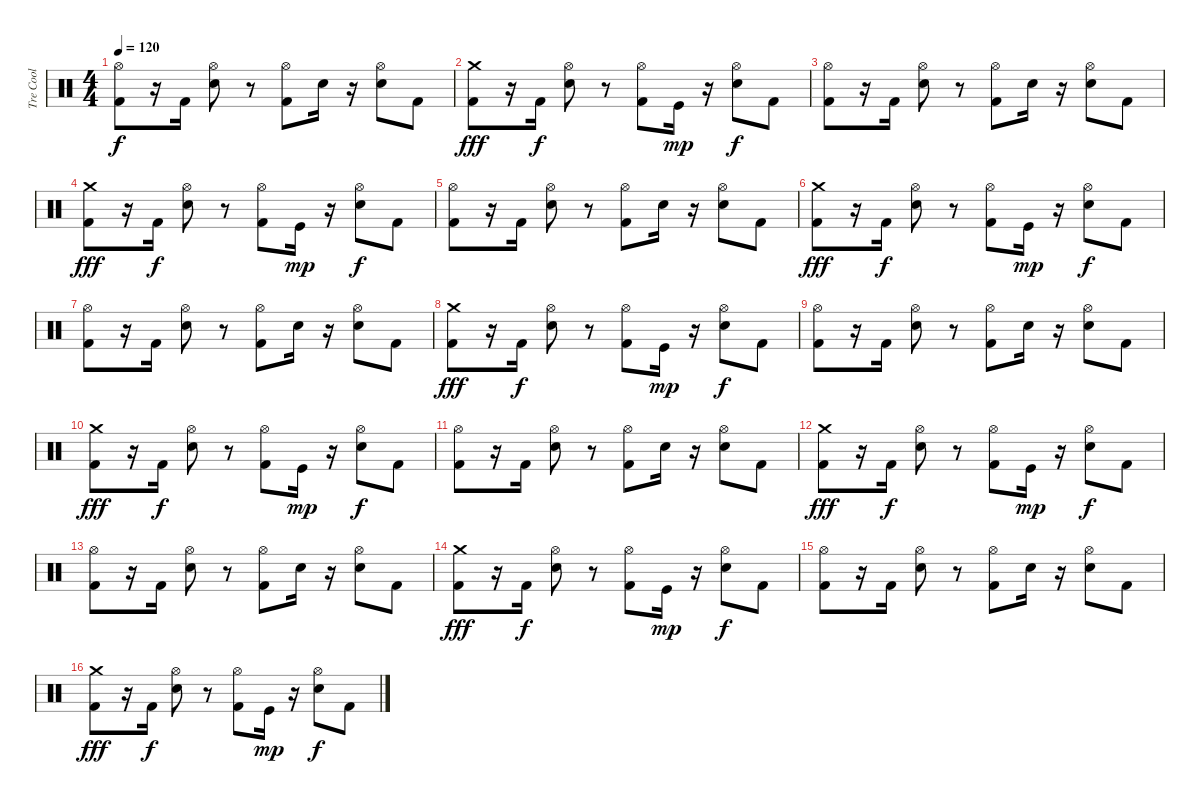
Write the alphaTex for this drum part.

\track ("Tre Cool" "Tre Cool") {instrument percussion}
\staff {score}
\articulation defaults
\ts (4 4)
\tempo 120
\clef neutral
\ks c
("Kick (hit) 2" "Hi-Hat (open)").8{dy f} r.16 "Kick (hit) 2".16 ("Electric Snare (hit)" "Hi-Hat (open)").8 r.8 ("Kick (hit) 2" "Hi-Hat (open)").8 "Electric Snare (hit)".16 r.16 ("Electric Snare (hit)" "Hi-Hat (open)").8 "Kick (hit) 2".8 |
("Kick (hit) 2" "Crash medium (hit)").8{dy fff} r.16 "Kick (hit) 2".16{dy f} ("Electric Snare (hit)" "Hi-Hat (open)").8 r.8 ("Kick (hit) 2" "Hi-Hat (open)").8 "Kick (hit)".16{dy mp} r.16 ("Electric Snare (hit)" "Hi-Hat (open)").8{dy f} "Kick (hit) 2".8 |
("Kick (hit) 2" "Hi-Hat (open)").8 r.16 "Kick (hit) 2".16 ("Electric Snare (hit)" "Hi-Hat (open)").8 r.8 ("Kick (hit) 2" "Hi-Hat (open)").8 "Electric Snare (hit)".16 r.16 ("Electric Snare (hit)" "Hi-Hat (open)").8 "Kick (hit) 2".8 |
("Kick (hit) 2" "Crash medium (hit)").8{dy fff} r.16 "Kick (hit) 2".16{dy f} ("Electric Snare (hit)" "Hi-Hat (open)").8 r.8 ("Kick (hit) 2" "Hi-Hat (open)").8 "Kick (hit)".16{dy mp} r.16 ("Electric Snare (hit)" "Hi-Hat (open)").8{dy f} "Kick (hit) 2".8 |
("Kick (hit) 2" "Hi-Hat (open)").8 r.16 "Kick (hit) 2".16 ("Electric Snare (hit)" "Hi-Hat (open)").8 r.8 ("Kick (hit) 2" "Hi-Hat (open)").8 "Electric Snare (hit)".16 r.16 ("Electric Snare (hit)" "Hi-Hat (open)").8 "Kick (hit) 2".8 |
("Kick (hit) 2" "Crash medium (hit)").8{dy fff} r.16 "Kick (hit) 2".16{dy f} ("Electric Snare (hit)" "Hi-Hat (open)").8 r.8 ("Kick (hit) 2" "Hi-Hat (open)").8 "Kick (hit)".16{dy mp} r.16 ("Electric Snare (hit)" "Hi-Hat (open)").8{dy f} "Kick (hit) 2".8 |
("Kick (hit) 2" "Hi-Hat (open)").8 r.16 "Kick (hit) 2".16 ("Electric Snare (hit)" "Hi-Hat (open)").8 r.8 ("Kick (hit) 2" "Hi-Hat (open)").8 "Electric Snare (hit)".16 r.16 ("Electric Snare (hit)" "Hi-Hat (open)").8 "Kick (hit) 2".8 |
("Kick (hit) 2" "Crash medium (hit)").8{dy fff} r.16 "Kick (hit) 2".16{dy f} ("Electric Snare (hit)" "Hi-Hat (open)").8 r.8 ("Kick (hit) 2" "Hi-Hat (open)").8 "Kick (hit)".16{dy mp} r.16 ("Electric Snare (hit)" "Hi-Hat (open)").8{dy f} "Kick (hit) 2".8 |
("Kick (hit) 2" "Hi-Hat (open)").8 r.16 "Kick (hit) 2".16 ("Electric Snare (hit)" "Hi-Hat (open)").8 r.8 ("Kick (hit) 2" "Hi-Hat (open)").8 "Electric Snare (hit)".16 r.16 ("Electric Snare (hit)" "Hi-Hat (open)").8 "Kick (hit) 2".8 |
("Kick (hit) 2" "Crash medium (hit)").8{dy fff} r.16 "Kick (hit) 2".16{dy f} ("Electric Snare (hit)" "Hi-Hat (open)").8 r.8 ("Kick (hit) 2" "Hi-Hat (open)").8 "Kick (hit)".16{dy mp} r.16 ("Electric Snare (hit)" "Hi-Hat (open)").8{dy f} "Kick (hit) 2".8 |
("Kick (hit) 2" "Hi-Hat (open)").8 r.16 "Kick (hit) 2".16 ("Electric Snare (hit)" "Hi-Hat (open)").8 r.8 ("Kick (hit) 2" "Hi-Hat (open)").8 "Electric Snare (hit)".16 r.16 ("Electric Snare (hit)" "Hi-Hat (open)").8 "Kick (hit) 2".8 |
("Kick (hit) 2" "Crash medium (hit)").8{dy fff} r.16 "Kick (hit) 2".16{dy f} ("Electric Snare (hit)" "Hi-Hat (open)").8 r.8 ("Kick (hit) 2" "Hi-Hat (open)").8 "Kick (hit)".16{dy mp} r.16 ("Electric Snare (hit)" "Hi-Hat (open)").8{dy f} "Kick (hit) 2".8 |
("Kick (hit) 2" "Hi-Hat (open)").8 r.16 "Kick (hit) 2".16 ("Electric Snare (hit)" "Hi-Hat (open)").8 r.8 ("Kick (hit) 2" "Hi-Hat (open)").8 "Electric Snare (hit)".16 r.16 ("Electric Snare (hit)" "Hi-Hat (open)").8 "Kick (hit) 2".8 |
("Kick (hit) 2" "Crash medium (hit)").8{dy fff} r.16 "Kick (hit) 2".16{dy f} ("Electric Snare (hit)" "Hi-Hat (open)").8 r.8 ("Kick (hit) 2" "Hi-Hat (open)").8 "Kick (hit)".16{dy mp} r.16 ("Electric Snare (hit)" "Hi-Hat (open)").8{dy f} "Kick (hit) 2".8 |
("Kick (hit) 2" "Hi-Hat (open)").8 r.16 "Kick (hit) 2".16 ("Electric Snare (hit)" "Hi-Hat (open)").8 r.8 ("Kick (hit) 2" "Hi-Hat (open)").8 "Electric Snare (hit)".16 r.16 ("Electric Snare (hit)" "Hi-Hat (open)").8 "Kick (hit) 2".8 |
("Kick (hit) 2" "Crash medium (hit)").8{dy fff} r.16 "Kick (hit) 2".16{dy f} ("Electric Snare (hit)" "Hi-Hat (open)").8 r.8 ("Kick (hit) 2" "Hi-Hat (open)").8 "Kick (hit)".16{dy mp} r.16 ("Electric Snare (hit)" "Hi-Hat (open)").8{dy f} "Kick (hit) 2".8
